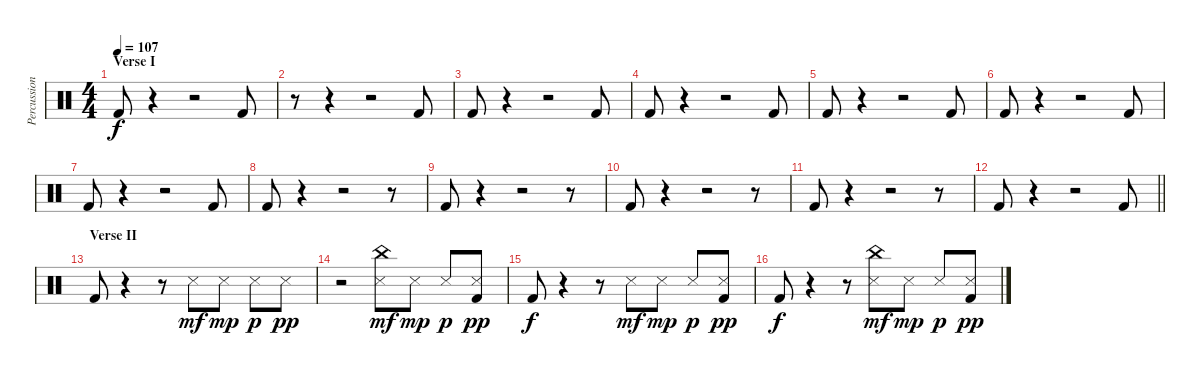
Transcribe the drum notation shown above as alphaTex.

\track ("Percussion" "Percussion") {instrument percussion}
\staff {score}
\articulation defaults
\ts (4 4)
\section ("" "Verse I")
\tempo 107
\clef neutral
\ks c "Kick (hit) 2".8{dy f}
r.4 r.2 "Kick (hit) 2".8 |
r.8 r.4 r.2 "Kick (hit) 2".8 |
"Kick (hit) 2".8 r.4 r.2 "Kick (hit) 2".8 |
"Kick (hit) 2".8 r.4 r.2 "Kick (hit) 2".8 |
"Kick (hit) 2".8 r.4 r.2 "Kick (hit) 2".8 |
"Kick (hit) 2".8 r.4 r.2 "Kick (hit) 2".8 |
"Kick (hit) 2".8 r.4 r.2 "Kick (hit) 2".8 |
"Kick (hit) 2".8 r.4 r.2 r.8 |
"Kick (hit) 2".8 r.4 r.2 r.8 |
"Kick (hit) 2".8 r.4 r.2 r.8 |
"Kick (hit) 2".8 r.4 r.2 r.8 |
\barLineRight lightlight "Kick (hit) 2".8
r.4 r.2 "Kick (hit) 2".8 |
\section ("" "Verse II")
"Kick (hit) 2".8 r.4 r.8 "Snare (side stick) 3".8{dy mf} "Snare (side stick) 3".8{dy mp} "Snare (side stick) 3".8{dy p} "Snare (side stick) 3".8{dy pp} |
r.2 ("China (hit)" "Snare (side stick) 3").8{dy mf} "Snare (side stick) 3".8{dy mp} "Snare (side stick) 3".8{dy p} ("Kick (hit) 2" "Snare (side stick) 3").8{dy pp} |
"Kick (hit) 2".8{dy f} r.4 r.8 "Snare (side stick) 3".8{dy mf} "Snare (side stick) 3".8{dy mp} "Snare (side stick) 3".8{dy p} ("Kick (hit) 2" "Snare (side stick) 3").8{dy pp} |
"Kick (hit) 2".8{dy f} r.4 r.8 ("China (hit)" "Snare (side stick) 3").8{dy mf} "Snare (side stick) 3".8{dy mp} "Snare (side stick) 3".8{dy p} ("Kick (hit) 2" "Snare (side stick) 3").8{dy pp}
